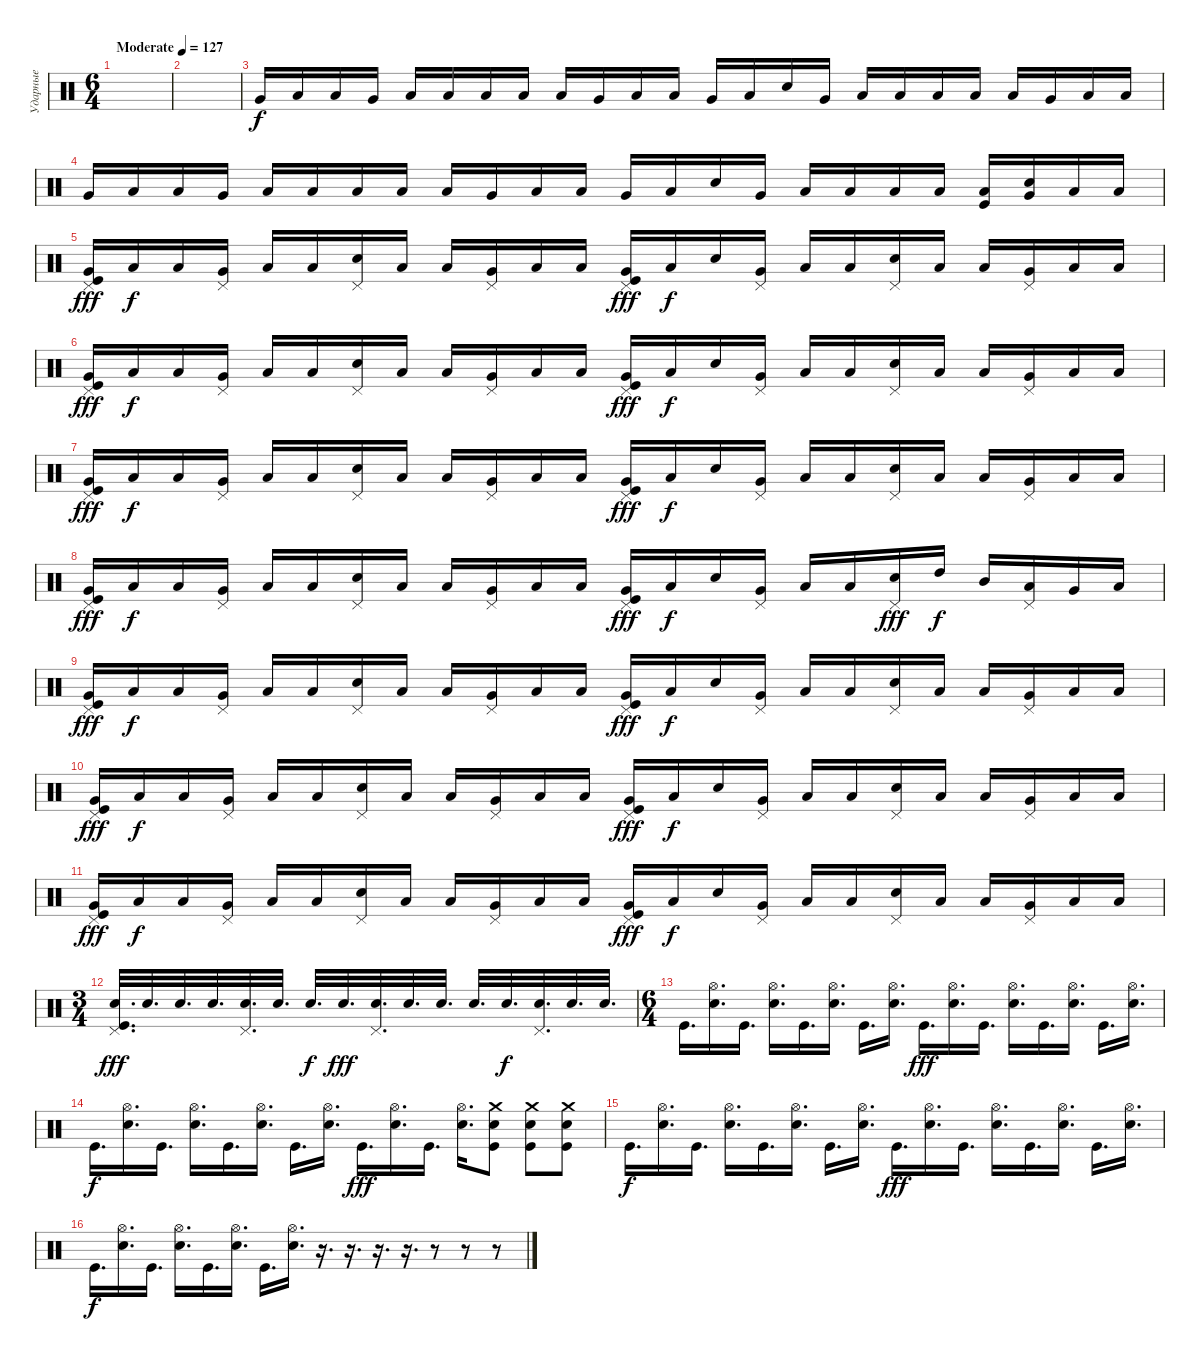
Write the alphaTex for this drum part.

\track ("Ударные" "Ударные") {instrument percussion}
\staff {score}
\articulation defaults
\ts (6 4)
\tempo (127 "Moderate")
\clef neutral
\ks c
|
|
"Very Low Tom (hit)".16 "Low Floor Tom (hit)".16 "Low Floor Tom (hit)".16 "Very Low Tom (hit)".16 "Low Floor Tom (hit)".16 "Low Floor Tom (hit)".16 "Low Tom (hit)".16 "Low Floor Tom (hit)".16 "Low Floor Tom (hit)".16 "Very Low Tom (hit)".16 "Low Floor Tom (hit)".16 "Low Floor Tom (hit)".16 "Very Low Tom (hit)".16 "Low Floor Tom (hit)".16 "Snare (hit)".16 "Very Low Tom (hit)".16 "Low Floor Tom (hit)".16 "Low Floor Tom (hit)".16 "Low Tom (hit)".16 "Low Floor Tom (hit)".16 "Low Floor Tom (hit)".16 "Very Low Tom (hit)".16 "Low Floor Tom (hit)".16 "Low Floor Tom (hit)".16 |
"Very Low Tom (hit)".16 "Low Floor Tom (hit)".16 "Low Floor Tom (hit)".16 "Very Low Tom (hit)".16 "Low Floor Tom (hit)".16 "Low Floor Tom (hit)".16 "Low Tom (hit)".16 "Low Floor Tom (hit)".16 "Low Floor Tom (hit)".16 "Very Low Tom (hit)".16 "Low Floor Tom (hit)".16 "Low Floor Tom (hit)".16 "Very Low Tom (hit)".16 "Low Floor Tom (hit)".16 "Snare (hit)".16 "Very Low Tom (hit)".16 "Low Floor Tom (hit)".16 "Low Floor Tom (hit)".16 "Low Tom (hit)".16 "Low Floor Tom (hit)".16 ("Low Floor Tom (hit)" "Kick (hit)").16 ("Very Low Tom (hit)" "Electric Snare (hit)").16 "Low Floor Tom (hit)".16 "Low Floor Tom (hit)".16 |
("Very Low Tom (hit)" "Pedal Hi-Hat (hit)" "Kick (hit)").16{dy fff} "Low Floor Tom (hit)".16{dy f} "Low Floor Tom (hit)".16 ("Very Low Tom (hit)" "Pedal Hi-Hat (hit)").16 "Low Floor Tom (hit)".16 "Low Floor Tom (hit)".16 ("Pedal Hi-Hat (hit)" "Electric Snare (hit)").16 "Low Floor Tom (hit)".16 "Low Floor Tom (hit)".16 ("Very Low Tom (hit)" "Pedal Hi-Hat (hit)").16 "Low Floor Tom (hit)".16 "Low Floor Tom (hit)".16 ("Very Low Tom (hit)" "Pedal Hi-Hat (hit)" "Kick (hit)").16{dy fff} "Low Floor Tom (hit)".16{dy f} "Snare (hit)".16 ("Very Low Tom (hit)" "Pedal Hi-Hat (hit)").16 "Low Floor Tom (hit)".16 "Low Floor Tom (hit)".16 ("Pedal Hi-Hat (hit)" "Electric Snare (hit)").16 "Low Floor Tom (hit)".16 "Low Floor Tom (hit)".16 ("Very Low Tom (hit)" "Pedal Hi-Hat (hit)").16 "Low Floor Tom (hit)".16 "Low Floor Tom (hit)".16 |
("Very Low Tom (hit)" "Pedal Hi-Hat (hit)" "Kick (hit)").16{dy fff} "Low Floor Tom (hit)".16{dy f} "Low Floor Tom (hit)".16 ("Very Low Tom (hit)" "Pedal Hi-Hat (hit)").16 "Low Floor Tom (hit)".16 "Low Floor Tom (hit)".16 ("Pedal Hi-Hat (hit)" "Electric Snare (hit)").16 "Low Floor Tom (hit)".16 "Low Floor Tom (hit)".16 ("Very Low Tom (hit)" "Pedal Hi-Hat (hit)").16 "Low Floor Tom (hit)".16 "Low Floor Tom (hit)".16 ("Very Low Tom (hit)" "Pedal Hi-Hat (hit)" "Kick (hit)").16{dy fff} "Low Floor Tom (hit)".16{dy f} "Snare (hit)".16 ("Very Low Tom (hit)" "Pedal Hi-Hat (hit)").16 "Low Floor Tom (hit)".16 "Low Floor Tom (hit)".16 ("Pedal Hi-Hat (hit)" "Electric Snare (hit)").16 "Low Floor Tom (hit)".16 "Low Floor Tom (hit)".16 ("Very Low Tom (hit)" "Pedal Hi-Hat (hit)").16 "Low Floor Tom (hit)".16 "Low Floor Tom (hit)".16 |
("Very Low Tom (hit)" "Pedal Hi-Hat (hit)" "Kick (hit)").16{dy fff} "Low Floor Tom (hit)".16{dy f} "Low Floor Tom (hit)".16 ("Very Low Tom (hit)" "Pedal Hi-Hat (hit)").16 "Low Floor Tom (hit)".16 "Low Floor Tom (hit)".16 ("Pedal Hi-Hat (hit)" "Electric Snare (hit)").16 "Low Floor Tom (hit)".16 "Low Floor Tom (hit)".16 ("Very Low Tom (hit)" "Pedal Hi-Hat (hit)").16 "Low Floor Tom (hit)".16 "Low Floor Tom (hit)".16 ("Very Low Tom (hit)" "Pedal Hi-Hat (hit)" "Kick (hit)").16{dy fff} "Low Floor Tom (hit)".16{dy f} "Snare (hit)".16 ("Very Low Tom (hit)" "Pedal Hi-Hat (hit)").16 "Low Floor Tom (hit)".16 "Low Floor Tom (hit)".16 ("Pedal Hi-Hat (hit)" "Electric Snare (hit)").16 "Low Floor Tom (hit)".16 "Low Floor Tom (hit)".16 ("Very Low Tom (hit)" "Pedal Hi-Hat (hit)").16 "Low Floor Tom (hit)".16 "Low Floor Tom (hit)".16 |
("Very Low Tom (hit)" "Pedal Hi-Hat (hit)" "Kick (hit)").16{dy fff} "Low Floor Tom (hit)".16{dy f} "Low Floor Tom (hit)".16 ("Very Low Tom (hit)" "Pedal Hi-Hat (hit)").16 "Low Floor Tom (hit)".16 "Low Floor Tom (hit)".16 ("Pedal Hi-Hat (hit)" "Electric Snare (hit)").16 "Low Floor Tom (hit)".16 "Low Floor Tom (hit)".16 ("Very Low Tom (hit)" "Pedal Hi-Hat (hit)").16 "Low Floor Tom (hit)".16 "Low Floor Tom (hit)".16 ("Very Low Tom (hit)" "Pedal Hi-Hat (hit)" "Kick (hit)").16{dy fff} "Low Floor Tom (hit)".16{dy f} "Snare (hit)".16 ("Very Low Tom (hit)" "Pedal Hi-Hat (hit)").16 "Low Floor Tom (hit)".16 "Low Floor Tom (hit)".16 ("Pedal Hi-Hat (hit)" "Electric Snare (hit)").16{dy fff} "High Tom (hit)".16{dy f} "Mid Tom (hit)".16 ("Low Tom (hit)" "Pedal Hi-Hat (hit)").16 "Very Low Tom (hit)".16 "Low Floor Tom (hit)".16 |
("Very Low Tom (hit)" "Pedal Hi-Hat (hit)" "Kick (hit)").16{dy fff} "Low Floor Tom (hit)".16{dy f} "Low Floor Tom (hit)".16 ("Very Low Tom (hit)" "Pedal Hi-Hat (hit)").16 "Low Floor Tom (hit)".16 "Low Floor Tom (hit)".16 ("Pedal Hi-Hat (hit)" "Electric Snare (hit)").16 "Low Floor Tom (hit)".16 "Low Floor Tom (hit)".16 ("Very Low Tom (hit)" "Pedal Hi-Hat (hit)").16 "Low Floor Tom (hit)".16 "Low Floor Tom (hit)".16 ("Very Low Tom (hit)" "Pedal Hi-Hat (hit)" "Kick (hit)").16{dy fff} "Low Floor Tom (hit)".16{dy f} "Snare (hit)".16 ("Very Low Tom (hit)" "Pedal Hi-Hat (hit)").16 "Low Floor Tom (hit)".16 "Low Floor Tom (hit)".16 ("Pedal Hi-Hat (hit)" "Electric Snare (hit)").16 "Low Floor Tom (hit)".16 "Low Floor Tom (hit)".16 ("Very Low Tom (hit)" "Pedal Hi-Hat (hit)").16 "Low Floor Tom (hit)".16 "Low Floor Tom (hit)".16 |
("Very Low Tom (hit)" "Pedal Hi-Hat (hit)" "Kick (hit)").16{dy fff} "Low Floor Tom (hit)".16{dy f} "Low Floor Tom (hit)".16 ("Very Low Tom (hit)" "Pedal Hi-Hat (hit)").16 "Low Floor Tom (hit)".16 "Low Floor Tom (hit)".16 ("Pedal Hi-Hat (hit)" "Electric Snare (hit)").16 "Low Floor Tom (hit)".16 "Low Floor Tom (hit)".16 ("Very Low Tom (hit)" "Pedal Hi-Hat (hit)").16 "Low Floor Tom (hit)".16 "Low Floor Tom (hit)".16 ("Very Low Tom (hit)" "Pedal Hi-Hat (hit)" "Kick (hit)").16{dy fff} "Low Floor Tom (hit)".16{dy f} "Snare (hit)".16 ("Very Low Tom (hit)" "Pedal Hi-Hat (hit)").16 "Low Floor Tom (hit)".16 "Low Floor Tom (hit)".16 ("Pedal Hi-Hat (hit)" "Electric Snare (hit)").16 "Low Floor Tom (hit)".16 "Low Floor Tom (hit)".16 ("Very Low Tom (hit)" "Pedal Hi-Hat (hit)").16 "Low Floor Tom (hit)".16 "Low Floor Tom (hit)".16 |
("Very Low Tom (hit)" "Pedal Hi-Hat (hit)" "Kick (hit)").16{dy fff} "Low Floor Tom (hit)".16{dy f} "Low Floor Tom (hit)".16 ("Very Low Tom (hit)" "Pedal Hi-Hat (hit)").16 "Low Floor Tom (hit)".16 "Low Floor Tom (hit)".16 ("Pedal Hi-Hat (hit)" "Electric Snare (hit)").16 "Low Floor Tom (hit)".16 "Low Floor Tom (hit)".16 ("Very Low Tom (hit)" "Pedal Hi-Hat (hit)").16 "Low Floor Tom (hit)".16 "Low Floor Tom (hit)".16 ("Very Low Tom (hit)" "Pedal Hi-Hat (hit)" "Kick (hit)").16{dy fff} "Low Floor Tom (hit)".16{dy f} "Snare (hit)".16 ("Very Low Tom (hit)" "Pedal Hi-Hat (hit)").16 "Low Floor Tom (hit)".16 "Low Floor Tom (hit)".16 ("Pedal Hi-Hat (hit)" "Electric Snare (hit)").16 "Low Floor Tom (hit)".16 "Low Floor Tom (hit)".16 ("Very Low Tom (hit)" "Pedal Hi-Hat (hit)").16 "Low Floor Tom (hit)".16 "Low Floor Tom (hit)".16 |
\ts (3 4)
("Pedal Hi-Hat (hit)" "Electric Snare (hit)" "Kick (hit)").32{d dy fff} "Electric Snare (hit)".32{d} "Electric Snare (hit)".32{d} "Electric Snare (hit)".32{d} ("Pedal Hi-Hat (hit)" "Electric Snare (hit)").32{d} "Electric Snare (hit)".32{d} "Electric Snare (hit)".32{d dy f} "Electric Snare (hit)".32{d dy fff} ("Pedal Hi-Hat (hit)" "Electric Snare (hit)").32{d} "Electric Snare (hit)".32{d} "Electric Snare (hit)".32{d} "Electric Snare (hit)".32{d} "Electric Snare (hit)".32{d dy f} ("Pedal Hi-Hat (hit)" "Electric Snare (hit)").32{d} "Electric Snare (hit)".32{d} "Electric Snare (hit)".32{d} |
\ts (6 4)
"Kick (hit)".16{d} ("Hi-Hat (open)" "Electric Snare (hit)").16{d} "Kick (hit)".16{d} ("Hi-Hat (open)" "Electric Snare (hit)").16{d} "Kick (hit)".16{d} ("Hi-Hat (open)" "Electric Snare (hit)").16{d} "Kick (hit)".16{d} ("Hi-Hat (open)" "Electric Snare (hit)").16{d} "Kick (hit)".16{d dy fff} ("Hi-Hat (open)" "Electric Snare (hit)").16{d} "Kick (hit)".16{d} ("Hi-Hat (open)" "Electric Snare (hit)").16{d} "Kick (hit)".16{d} ("Hi-Hat (open)" "Electric Snare (hit)").16{d} "Kick (hit)".16{d} ("Hi-Hat (open)" "Electric Snare (hit)").16{d} |
"Kick (hit)".16{d dy f} ("Hi-Hat (open)" "Electric Snare (hit)").16{d} "Kick (hit)".16{d} ("Hi-Hat (open)" "Electric Snare (hit)").16{d} "Kick (hit)".16{d} ("Hi-Hat (open)" "Electric Snare (hit)").16{d} "Kick (hit)".16{d} ("Hi-Hat (open)" "Electric Snare (hit)").16{d} "Kick (hit)".16{d dy fff} ("Hi-Hat (open)" "Electric Snare (hit)").16{d} "Kick (hit)".16{d} ("Hi-Hat (open)" "Electric Snare (hit)").16{d} ("Crash medium (hit)" "Electric Snare (hit)" "Kick (hit)").8 ("Crash medium (hit)" "Electric Snare (hit)" "Kick (hit)").8 ("Crash medium (hit)" "Electric Snare (hit)" "Kick (hit)").8 |
"Kick (hit)".16{d dy f} ("Hi-Hat (open)" "Electric Snare (hit)").16{d} "Kick (hit)".16{d} ("Hi-Hat (open)" "Electric Snare (hit)").16{d} "Kick (hit)".16{d} ("Hi-Hat (open)" "Electric Snare (hit)").16{d} "Kick (hit)".16{d} ("Hi-Hat (open)" "Electric Snare (hit)").16{d} "Kick (hit)".16{d dy fff} ("Hi-Hat (open)" "Electric Snare (hit)").16{d} "Kick (hit)".16{d} ("Hi-Hat (open)" "Electric Snare (hit)").16{d} "Kick (hit)".16{d} ("Hi-Hat (open)" "Electric Snare (hit)").16{d} "Kick (hit)".16{d} ("Hi-Hat (open)" "Electric Snare (hit)").16{d} |
"Kick (hit)".16{d dy f} ("Hi-Hat (open)" "Electric Snare (hit)").16{d} "Kick (hit)".16{d} ("Hi-Hat (open)" "Electric Snare (hit)").16{d} "Kick (hit)".16{d} ("Hi-Hat (open)" "Electric Snare (hit)").16{d} "Kick (hit)".16{d} ("Hi-Hat (open)" "Electric Snare (hit)").16{d} r.16{d} r.16{d} r.16{d} r.16{d} r.8 r.8 r.8
